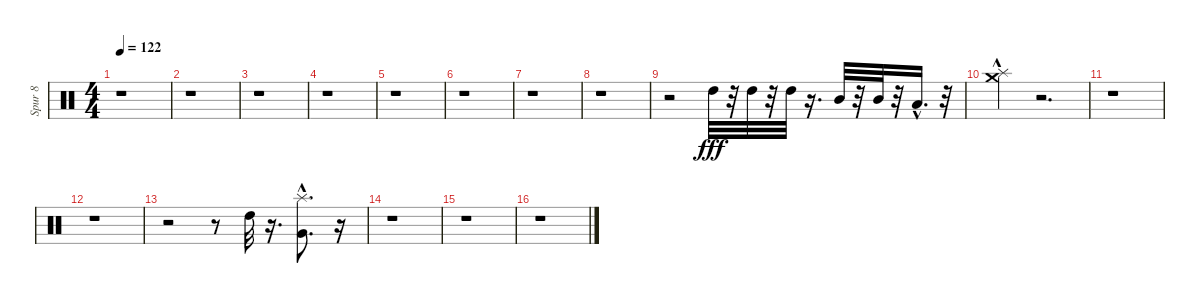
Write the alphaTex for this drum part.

\track ("Spur 8" "Spur 8") {instrument percussion}
\staff {score}
\articulation defaults
\ts (4 4)
\tempo 122
\clef neutral
\ks c
r.1{dy fff} |
r.1 |
r.1 |
r.1 |
r.1 |
r.1 |
r.1 |
r.1 |
r.2 "High Tom (hit)".32 r.32 "High Tom (hit)".32 r.32 "High Tom (hit)".32 r.16{d} "Mid Tom (hit)".32 r.32 "Mid Tom (hit)".32 r.32 "Low Tom (hit)"{hac}.16{d} r.32 |
("Splash (hit)"{hac} "Crash medium (hit)").4 r.2{d} |
r.1 |
r.1 |
r.2 r.8 "High Tom (hit)".32 r.16{d} ("Splash (hit)"{hac} "Very Low Tom (hit)"{hac}).8{d} r.16 |
r.1 |
r.1 |
r.1
